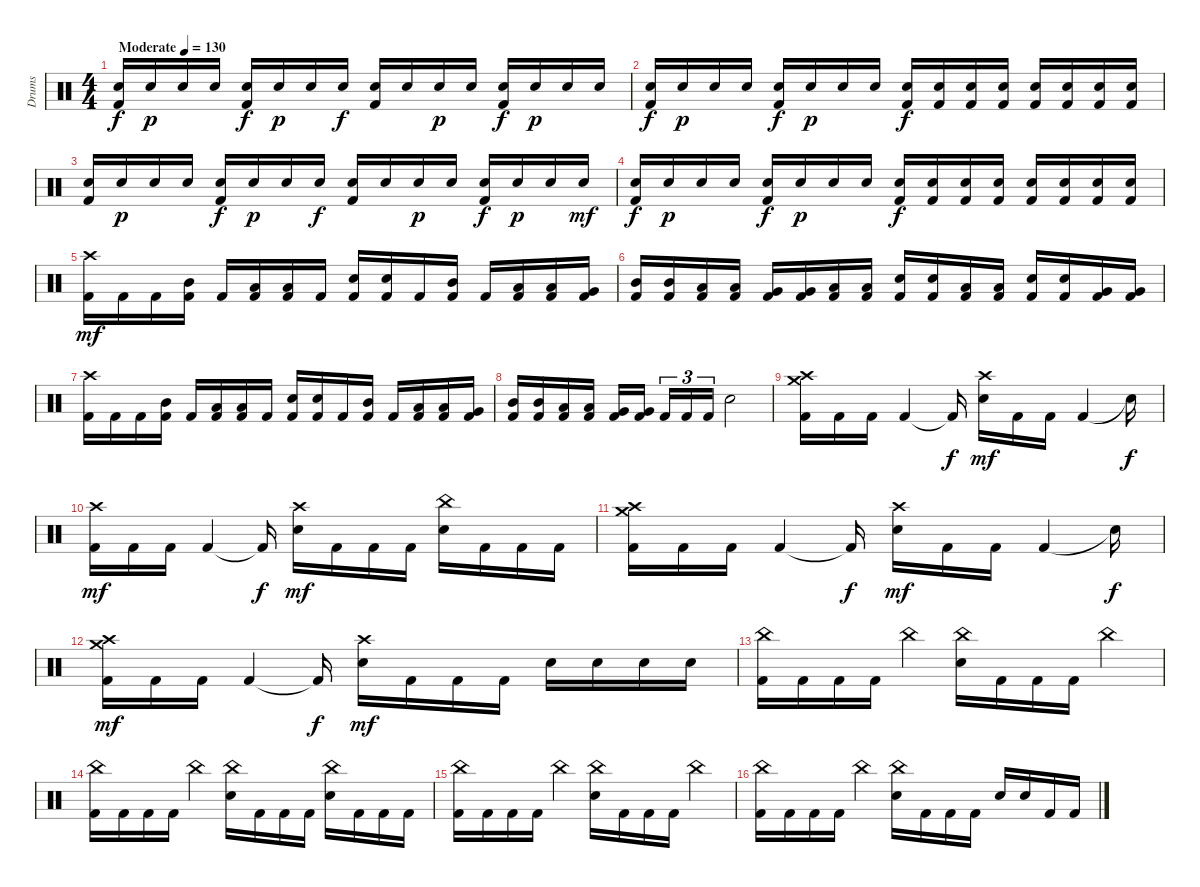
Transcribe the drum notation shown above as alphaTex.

\track ("Drums" "Drums") {instrument percussion}
\staff {score}
\articulation defaults
\ts (4 4)
\tempo (130 "Moderate")
\clef neutral
\ks c
("Electric Snare (hit)" "Kick (hit) 2").16{dy f} "Electric Snare (hit)".16{dy p} "Electric Snare (hit)".16 "Electric Snare (hit)".16 ("Electric Snare (hit)" "Kick (hit) 2").16{dy f} "Electric Snare (hit)".16{dy p} "Electric Snare (hit)".16 "Electric Snare (hit)".16{dy f} ("Electric Snare (hit)" "Kick (hit) 2").16 "Electric Snare (hit)".16 "Electric Snare (hit)".16{dy p} "Electric Snare (hit)".16 ("Electric Snare (hit)" "Kick (hit) 2").16{dy f} "Electric Snare (hit)".16{dy p} "Electric Snare (hit)".16 "Electric Snare (hit)".16 |
("Electric Snare (hit)" "Kick (hit) 2").16{dy f} "Electric Snare (hit)".16{dy p} "Electric Snare (hit)".16 "Electric Snare (hit)".16 ("Electric Snare (hit)" "Kick (hit) 2").16{dy f} "Electric Snare (hit)".16{dy p} "Electric Snare (hit)".16 "Electric Snare (hit)".16 ("Electric Snare (hit)" "Kick (hit) 2").16{dy f} ("Electric Snare (hit)" "Kick (hit) 2").16 ("Electric Snare (hit)" "Kick (hit) 2").16 ("Electric Snare (hit)" "Kick (hit) 2").16 ("Electric Snare (hit)" "Kick (hit) 2").16 ("Electric Snare (hit)" "Kick (hit) 2").16 ("Electric Snare (hit)" "Kick (hit) 2").16 ("Electric Snare (hit)" "Kick (hit) 2").16 |
("Electric Snare (hit)" "Kick (hit) 2").16 "Electric Snare (hit)".16{dy p} "Electric Snare (hit)".16 "Electric Snare (hit)".16 ("Electric Snare (hit)" "Kick (hit) 2").16{dy f} "Electric Snare (hit)".16{dy p} "Electric Snare (hit)".16 "Electric Snare (hit)".16{dy f} ("Electric Snare (hit)" "Kick (hit) 2").16 "Electric Snare (hit)".16 "Electric Snare (hit)".16{dy p} "Electric Snare (hit)".16 ("Electric Snare (hit)" "Kick (hit) 2").16{dy f} "Electric Snare (hit)".16{dy p} "Electric Snare (hit)".16 "Electric Snare (hit)".16{dy mf} |
("Electric Snare (hit)" "Kick (hit) 2").16{dy f} "Electric Snare (hit)".16{dy p} "Electric Snare (hit)".16 "Electric Snare (hit)".16 ("Electric Snare (hit)" "Kick (hit) 2").16{dy f} "Electric Snare (hit)".16{dy p} "Electric Snare (hit)".16 "Electric Snare (hit)".16 ("Electric Snare (hit)" "Kick (hit) 2").16{dy f} ("Electric Snare (hit)" "Kick (hit) 2").16 ("Electric Snare (hit)" "Kick (hit) 2").16 ("Electric Snare (hit)" "Kick (hit) 2").16 ("Electric Snare (hit)" "Kick (hit) 2").16 ("Electric Snare (hit)" "Kick (hit) 2").16 ("Electric Snare (hit)" "Kick (hit) 2").16 ("Electric Snare (hit)" "Kick (hit) 2").16 |
("Crash high (hit)" "Kick (hit) 2").16{dy mf} "Kick (hit) 2".16 "Kick (hit) 2".16 ("Mid Tom (hit)" "Kick (hit) 2").16 "Kick (hit) 2".16 ("Low Tom (hit)" "Kick (hit) 2").16 ("Low Tom (hit)" "Kick (hit) 2").16 "Kick (hit) 2".16 ("Electric Snare (hit)" "Kick (hit) 2").16 ("Electric Snare (hit)" "Kick (hit) 2").16 "Kick (hit) 2".16 ("Mid Tom (hit)" "Kick (hit) 2").16 "Kick (hit) 2".16 ("Low Tom (hit)" "Kick (hit) 2").16 ("Low Tom (hit)" "Kick (hit) 2").16 ("Very Low Tom (hit)" "Kick (hit) 2").16 |
("Mid Tom (hit)" "Kick (hit) 2").16 ("Mid Tom (hit)" "Kick (hit) 2").16 ("Low Tom (hit)" "Kick (hit) 2").16 ("Low Tom (hit)" "Kick (hit) 2").16 ("Very Low Tom (hit)" "Kick (hit) 2").16 ("Very Low Tom (hit)" "Kick (hit) 2").16 ("Low Floor Tom (hit)" "Kick (hit) 2").16 ("Low Floor Tom (hit)" "Kick (hit) 2").16 ("Electric Snare (hit)" "Kick (hit) 2").16 ("Electric Snare (hit)" "Kick (hit) 2").16 ("Low Tom (hit)" "Kick (hit) 2").16 ("Low Tom (hit)" "Kick (hit) 2").16 ("Electric Snare (hit)" "Kick (hit) 2").16 ("Electric Snare (hit)" "Kick (hit) 2").16 ("Very Low Tom (hit)" "Kick (hit) 2").16 ("Very Low Tom (hit)" "Kick (hit) 2").16 |
("Crash high (hit)" "Kick (hit) 2").16 "Kick (hit) 2".16 "Kick (hit) 2".16 ("Mid Tom (hit)" "Kick (hit) 2").16 "Kick (hit) 2".16 ("Low Tom (hit)" "Kick (hit) 2").16 ("Low Tom (hit)" "Kick (hit) 2").16 "Kick (hit) 2".16 ("Electric Snare (hit)" "Kick (hit) 2").16 ("Electric Snare (hit)" "Kick (hit) 2").16 "Kick (hit) 2".16 ("Mid Tom (hit)" "Kick (hit) 2").16 "Kick (hit) 2".16 ("Low Tom (hit)" "Kick (hit) 2").16 ("Low Tom (hit)" "Kick (hit) 2").16 ("Very Low Tom (hit)" "Kick (hit) 2").16 |
("Mid Tom (hit)" "Kick (hit) 2").16 ("Mid Tom (hit)" "Kick (hit) 2").16 ("Low Tom (hit)" "Kick (hit) 2").16 ("Low Tom (hit)" "Kick (hit) 2").16 ("Very Low Tom (hit)" "Kick (hit) 2").16 ("Very Low Tom (hit)" "Kick (hit) 2").16{beam splitsecondary} "Kick (hit) 2".16{tu (3 2)} "Kick (hit) 2".16{tu (3 2)} "Kick (hit) 2".16{tu (3 2)} "Electric Snare (hit)".2 |
("Crash high (hit)" "Crash medium (hit)" "Kick (hit) 2").16 "Kick (hit) 2".16 "Kick (hit) 2".16 "Kick (hit) 2".4 "Kick (hit) 2"{t}.16{dy f} ("Crash high (hit)" "Electric Snare (hit)").16{dy mf} "Kick (hit) 2".16 "Kick (hit) 2".16 "Kick (hit) 2".4 "Snare (hit)"{t}.16{dy f} |
("Crash high (hit)" "Kick (hit) 2").16{dy mf} "Kick (hit) 2".16 "Kick (hit) 2".16 "Kick (hit) 2".4 "Kick (hit) 2"{t}.16{dy f} ("Crash high (hit)" "Electric Snare (hit)").16{dy mf} "Kick (hit) 2".16 "Kick (hit) 2".16 "Kick (hit) 2".16 ("China (hit)" "Electric Snare (hit)").16 "Kick (hit) 2".16 "Kick (hit) 2".16 "Kick (hit) 2".16 |
("Crash high (hit)" "Crash medium (hit)" "Kick (hit) 2").16 "Kick (hit) 2".16 "Kick (hit) 2".16 "Kick (hit) 2".4 "Kick (hit) 2"{t}.16{dy f} ("Crash high (hit)" "Electric Snare (hit)").16{dy mf} "Kick (hit) 2".16 "Kick (hit) 2".16 "Kick (hit) 2".4 "Snare (hit)"{t}.16{dy f} |
("Crash high (hit)" "Crash medium (hit)" "Kick (hit) 2").16{dy mf} "Kick (hit) 2".16 "Kick (hit) 2".16 "Kick (hit) 2".4 "Kick (hit) 2"{t}.16{dy f} ("Crash high (hit)" "Electric Snare (hit)").16{dy mf} "Kick (hit) 2".16 "Kick (hit) 2".16 "Kick (hit) 2".16 "Electric Snare (hit)".16 "Electric Snare (hit)".16 "Electric Snare (hit)".16 "Electric Snare (hit)".16 |
("China (hit)" "Kick (hit) 2").16 "Kick (hit) 2".16 "Kick (hit) 2".16 "Kick (hit) 2".16 "China (hit)".4 ("China (hit)" "Electric Snare (hit)").16 "Kick (hit) 2".16 "Kick (hit) 2".16 "Kick (hit) 2".16 "China (hit)".4 |
("China (hit)" "Kick (hit) 2").16 "Kick (hit) 2".16 "Kick (hit) 2".16 "Kick (hit) 2".16 "China (hit)".4 ("China (hit)" "Electric Snare (hit)").16 "Kick (hit) 2".16 "Kick (hit) 2".16 "Kick (hit) 2".16 ("China (hit)" "Electric Snare (hit)").16 "Kick (hit) 2".16 "Kick (hit) 2".16 "Kick (hit) 2".16 |
("China (hit)" "Kick (hit) 2").16 "Kick (hit) 2".16 "Kick (hit) 2".16 "Kick (hit) 2".16 "China (hit)".4 ("China (hit)" "Electric Snare (hit)").16 "Kick (hit) 2".16 "Kick (hit) 2".16 "Kick (hit) 2".16 "China (hit)".4 |
("China (hit)" "Kick (hit) 2").16 "Kick (hit) 2".16 "Kick (hit) 2".16 "Kick (hit) 2".16 "China (hit)".4 ("China (hit)" "Electric Snare (hit)").16 "Kick (hit) 2".16 "Kick (hit) 2".16 "Kick (hit) 2".16 "Electric Snare (hit)".16 "Electric Snare (hit)".16 "Kick (hit) 2".16 "Kick (hit) 2".16
